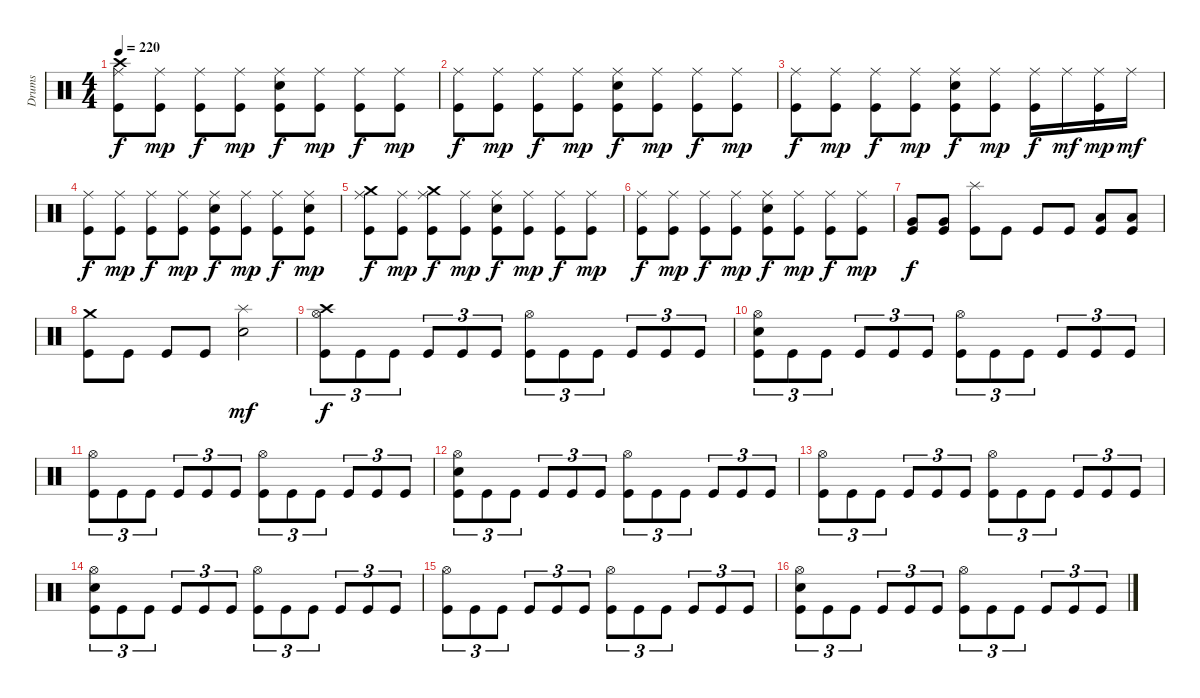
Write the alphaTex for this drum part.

\track ("Drums" "Drums") {instrument percussion}
\staff {score}
\articulation defaults
\ts (4 4)
\tempo 220
\clef neutral
\ks c
("Crash high (hit)" "Ride (middle)" "Kick (hit)").8{dy f} ("Ride (middle)" "Kick (hit)").8{dy mp} ("Ride (middle)" "Kick (hit)").8{dy f} ("Ride (middle)" "Kick (hit)").8{dy mp} ("Ride (middle)" "Electric Snare (hit)" "Kick (hit)").8{dy f} ("Ride (middle)" "Kick (hit)").8{dy mp} ("Ride (middle)" "Kick (hit)").8{dy f} ("Ride (middle)" "Kick (hit)").8{dy mp} |
("Ride (middle)" "Kick (hit)").8{dy f} ("Ride (middle)" "Kick (hit)").8{dy mp} ("Ride (middle)" "Kick (hit)").8{dy f} ("Ride (middle)" "Kick (hit)").8{dy mp} ("Ride (middle)" "Electric Snare (hit)" "Kick (hit)").8{dy f} ("Ride (middle)" "Kick (hit)").8{dy mp} ("Ride (middle)" "Kick (hit)").8{dy f} ("Ride (middle)" "Kick (hit)").8{dy mp} |
("Ride (middle)" "Kick (hit)").8{dy f} ("Ride (middle)" "Kick (hit)").8{dy mp} ("Ride (middle)" "Kick (hit)").8{dy f} ("Ride (middle)" "Kick (hit)").8{dy mp} ("Ride (middle)" "Electric Snare (hit)" "Kick (hit)").8{dy f} ("Ride (middle)" "Kick (hit)").8{dy mp} ("Ride (middle)" "Kick (hit)").16{dy f} "Ride (middle)".16{dy mf} ("Ride (middle)" "Kick (hit)").16{dy mp} "Ride (middle)".16{dy mf} |
("Ride (middle)" "Kick (hit)").8{dy f} ("Ride (middle)" "Kick (hit)").8{dy mp} ("Ride (middle)" "Kick (hit)").8{dy f} ("Ride (middle)" "Kick (hit)").8{dy mp} ("Ride (middle)" "Electric Snare (hit)" "Kick (hit)").8{dy f} ("Ride (middle)" "Kick (hit)").8{dy mp} ("Ride (middle)" "Kick (hit)").8{dy f} ("Ride (middle)" "Electric Snare (hit)" "Kick (hit)").8{dy mp} |
("Crash medium (hit)" "Ride (middle)" "Kick (hit)").8{dy f} ("Ride (middle)" "Kick (hit)").8{dy mp} ("Crash medium (hit)" "Ride (middle)" "Kick (hit)").8{dy f} ("Ride (middle)" "Kick (hit)").8{dy mp} ("Ride (middle)" "Electric Snare (hit)" "Kick (hit)").8{dy f} ("Ride (middle)" "Kick (hit)").8{dy mp} ("Ride (middle)" "Kick (hit)").8{dy f} ("Ride (middle)" "Kick (hit)").8{dy mp} |
("Ride (middle)" "Kick (hit)").8{dy f} ("Ride (middle)" "Kick (hit)").8{dy mp} ("Ride (middle)" "Kick (hit)").8{dy f} ("Ride (middle)" "Kick (hit)").8{dy mp} ("Ride (middle)" "Electric Snare (hit)" "Kick (hit)").8{dy f} ("Ride (middle)" "Kick (hit)").8{dy mp} ("Ride (middle)" "Kick (hit)").8{dy f} ("Ride (middle)" "Kick (hit)").8{dy mp} |
("Very Low Tom (hit)" "Kick (hit)").8{dy f} ("Very Low Tom (hit)" "Kick (hit)").8 ("Splash (hit)" "Kick (hit)").8 "Kick (hit)".8 "Kick (hit)".8 "Kick (hit)".8 ("Low Floor Tom (hit)" "Kick (hit)").8 ("Low Floor Tom (hit)" "Kick (hit)").8 |
("Crash medium (hit)" "Kick (hit)").8 "Kick (hit)".8 "Kick (hit)".8 "Kick (hit)".8 ("Splash (hit)" "Electric Snare (hit)").2{dy mf} |
("Crash high (hit)" "Hi-Hat (open)" "Kick (hit)").8{tu (3 2) dy f} "Kick (hit)".8{tu (3 2)} "Kick (hit)".8{tu (3 2)} "Kick (hit)".8{tu (3 2)} "Kick (hit)".8{tu (3 2)} "Kick (hit)".8{tu (3 2)} ("Hi-Hat (open)" "Kick (hit)").8{tu (3 2)} "Kick (hit)".8{tu (3 2)} "Kick (hit)".8{tu (3 2)} "Kick (hit)".8{tu (3 2)} "Kick (hit)".8{tu (3 2)} "Kick (hit)".8{tu (3 2)} |
("Hi-Hat (open)" "Electric Snare (hit)" "Kick (hit)").8{tu (3 2)} "Kick (hit)".8{tu (3 2)} "Kick (hit)".8{tu (3 2)} "Kick (hit)".8{tu (3 2)} "Kick (hit)".8{tu (3 2)} "Kick (hit)".8{tu (3 2)} ("Hi-Hat (open)" "Kick (hit)").8{tu (3 2)} "Kick (hit)".8{tu (3 2)} "Kick (hit)".8{tu (3 2)} "Kick (hit)".8{tu (3 2)} "Kick (hit)".8{tu (3 2)} "Kick (hit)".8{tu (3 2)} |
("Hi-Hat (open)" "Kick (hit)").8{tu (3 2)} "Kick (hit)".8{tu (3 2)} "Kick (hit)".8{tu (3 2)} "Kick (hit)".8{tu (3 2)} "Kick (hit)".8{tu (3 2)} "Kick (hit)".8{tu (3 2)} ("Hi-Hat (open)" "Kick (hit)").8{tu (3 2)} "Kick (hit)".8{tu (3 2)} "Kick (hit)".8{tu (3 2)} "Kick (hit)".8{tu (3 2)} "Kick (hit)".8{tu (3 2)} "Kick (hit)".8{tu (3 2)} |
("Hi-Hat (open)" "Electric Snare (hit)" "Kick (hit)").8{tu (3 2)} "Kick (hit)".8{tu (3 2)} "Kick (hit)".8{tu (3 2)} "Kick (hit)".8{tu (3 2)} "Kick (hit)".8{tu (3 2)} "Kick (hit)".8{tu (3 2)} ("Hi-Hat (open)" "Kick (hit)").8{tu (3 2)} "Kick (hit)".8{tu (3 2)} "Kick (hit)".8{tu (3 2)} "Kick (hit)".8{tu (3 2)} "Kick (hit)".8{tu (3 2)} "Kick (hit)".8{tu (3 2)} |
("Hi-Hat (open)" "Kick (hit)").8{tu (3 2)} "Kick (hit)".8{tu (3 2)} "Kick (hit)".8{tu (3 2)} "Kick (hit)".8{tu (3 2)} "Kick (hit)".8{tu (3 2)} "Kick (hit)".8{tu (3 2)} ("Hi-Hat (open)" "Kick (hit)").8{tu (3 2)} "Kick (hit)".8{tu (3 2)} "Kick (hit)".8{tu (3 2)} "Kick (hit)".8{tu (3 2)} "Kick (hit)".8{tu (3 2)} "Kick (hit)".8{tu (3 2)} |
("Hi-Hat (open)" "Electric Snare (hit)" "Kick (hit)").8{tu (3 2)} "Kick (hit)".8{tu (3 2)} "Kick (hit)".8{tu (3 2)} "Kick (hit)".8{tu (3 2)} "Kick (hit)".8{tu (3 2)} "Kick (hit)".8{tu (3 2)} ("Hi-Hat (open)" "Kick (hit)").8{tu (3 2)} "Kick (hit)".8{tu (3 2)} "Kick (hit)".8{tu (3 2)} "Kick (hit)".8{tu (3 2)} "Kick (hit)".8{tu (3 2)} "Kick (hit)".8{tu (3 2)} |
("Hi-Hat (open)" "Kick (hit)").8{tu (3 2)} "Kick (hit)".8{tu (3 2)} "Kick (hit)".8{tu (3 2)} "Kick (hit)".8{tu (3 2)} "Kick (hit)".8{tu (3 2)} "Kick (hit)".8{tu (3 2)} ("Hi-Hat (open)" "Kick (hit)").8{tu (3 2)} "Kick (hit)".8{tu (3 2)} "Kick (hit)".8{tu (3 2)} "Kick (hit)".8{tu (3 2)} "Kick (hit)".8{tu (3 2)} "Kick (hit)".8{tu (3 2)} |
("Hi-Hat (open)" "Electric Snare (hit)" "Kick (hit)").8{tu (3 2)} "Kick (hit)".8{tu (3 2)} "Kick (hit)".8{tu (3 2)} "Kick (hit)".8{tu (3 2)} "Kick (hit)".8{tu (3 2)} "Kick (hit)".8{tu (3 2)} ("Hi-Hat (open)" "Kick (hit)").8{tu (3 2)} "Kick (hit)".8{tu (3 2)} "Kick (hit)".8{tu (3 2)} "Kick (hit)".8{tu (3 2)} "Kick (hit)".8{tu (3 2)} "Kick (hit)".8{tu (3 2)}
